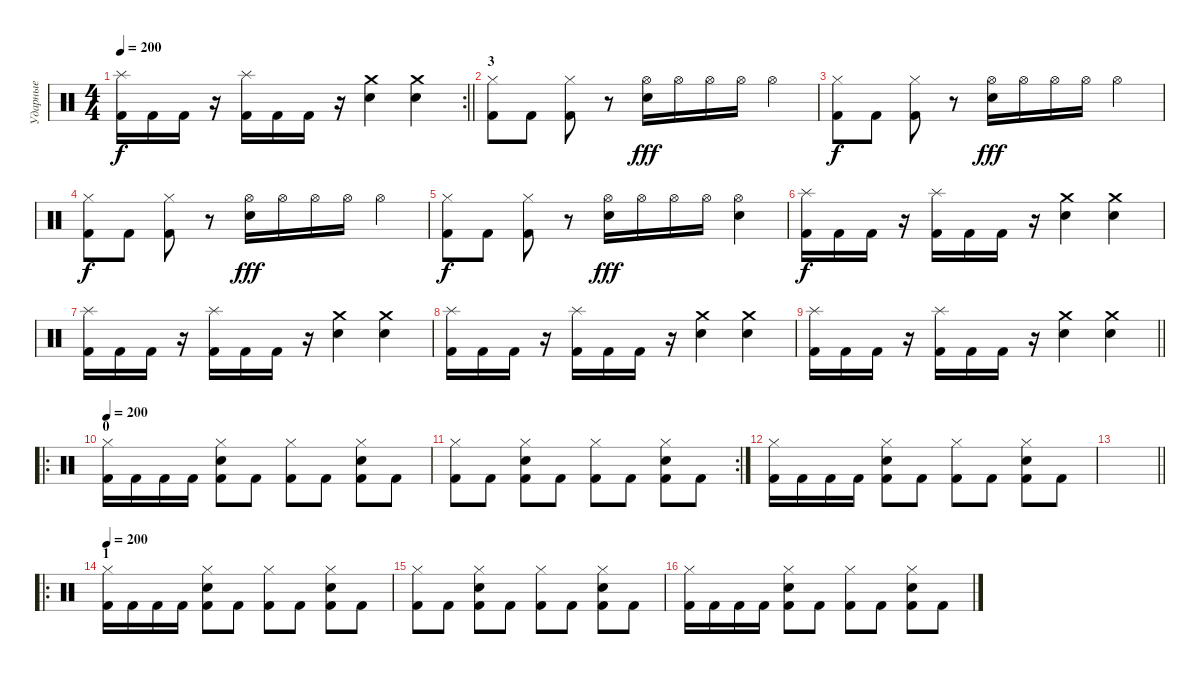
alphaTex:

\track ("Ударные" "Ударные") {instrument percussion}
\staff {score}
\articulation defaults
\rc 2
\ts (4 4)
\tempo 200
\clef neutral
\barLineRight lightlight
\ks c
("Splash (hit)" "Kick (hit) 2").16{dy f} "Kick (hit) 2".16 "Kick (hit) 2".16 r.16 ("Splash (hit)" "Kick (hit) 2").16 "Kick (hit) 2".16 "Kick (hit) 2".16 r.16 ("Crash medium (hit)" "Electric Snare (hit)").4 ("Crash medium (hit)" "Electric Snare (hit)").4 |
\section ("" "3")
("Hi-Hat (closed)" "Kick (hit) 2").8 "Kick (hit) 2".8 ("Hi-Hat (closed)" "Kick (hit) 2").8 r.8 ("Hi-Hat (open)" "Electric Snare (hit)").16{dy fff} "Hi-Hat (open)".16 "Hi-Hat (open)".16 "Hi-Hat (open)".16 "Hi-Hat (open)".4 |
("Hi-Hat (closed)" "Kick (hit) 2").8{dy f} "Kick (hit) 2".8 ("Hi-Hat (closed)" "Kick (hit) 2").8 r.8 ("Hi-Hat (open)" "Electric Snare (hit)").16{dy fff} "Hi-Hat (open)".16 "Hi-Hat (open)".16 "Hi-Hat (open)".16 "Hi-Hat (open)".4 |
("Hi-Hat (closed)" "Kick (hit) 2").8{dy f} "Kick (hit) 2".8 ("Hi-Hat (closed)" "Kick (hit) 2").8 r.8 ("Hi-Hat (open)" "Electric Snare (hit)").16{dy fff} "Hi-Hat (open)".16 "Hi-Hat (open)".16 "Hi-Hat (open)".16 "Hi-Hat (open)".4 |
("Hi-Hat (closed)" "Kick (hit) 2").8{dy f} "Kick (hit) 2".8 ("Hi-Hat (closed)" "Kick (hit) 2").8 r.8 ("Hi-Hat (open)" "Electric Snare (hit)").16{dy fff} "Hi-Hat (open)".16 "Hi-Hat (open)".16 "Hi-Hat (open)".16 ("Hi-Hat (open)" "Electric Snare (hit)").4 |
("Splash (hit)" "Kick (hit) 2").16{dy f} "Kick (hit) 2".16 "Kick (hit) 2".16 r.16 ("Splash (hit)" "Kick (hit) 2").16 "Kick (hit) 2".16 "Kick (hit) 2".16 r.16 ("Crash medium (hit)" "Electric Snare (hit)").4 ("Crash medium (hit)" "Electric Snare (hit)").4 |
("Splash (hit)" "Kick (hit) 2").16 "Kick (hit) 2".16 "Kick (hit) 2".16 r.16 ("Splash (hit)" "Kick (hit) 2").16 "Kick (hit) 2".16 "Kick (hit) 2".16 r.16 ("Crash medium (hit)" "Electric Snare (hit)").4 ("Crash medium (hit)" "Electric Snare (hit)").4 |
("Splash (hit)" "Kick (hit) 2").16 "Kick (hit) 2".16 "Kick (hit) 2".16 r.16 ("Splash (hit)" "Kick (hit) 2").16 "Kick (hit) 2".16 "Kick (hit) 2".16 r.16 ("Crash medium (hit)" "Electric Snare (hit)").4 ("Crash medium (hit)" "Electric Snare (hit)").4 |
\barLineRight lightlight
("Splash (hit)" "Kick (hit) 2").16 "Kick (hit) 2".16 "Kick (hit) 2".16 r.16 ("Splash (hit)" "Kick (hit) 2").16 "Kick (hit) 2".16 "Kick (hit) 2".16 r.16 ("Crash medium (hit)" "Electric Snare (hit)").4 ("Crash medium (hit)" "Electric Snare (hit)").4 |
\ro
\section ("" "0")
\tempo 200
("Hi-Hat (closed)" "Kick (hit) 2").16 "Kick (hit) 2".16 "Kick (hit) 2".16 "Kick (hit) 2".16 ("Hi-Hat (closed)" "Electric Snare (hit)" "Kick (hit) 2").8 "Kick (hit) 2".8 ("Hi-Hat (closed)" "Kick (hit) 2").8 "Kick (hit) 2".8 ("Hi-Hat (closed)" "Electric Snare (hit)" "Kick (hit) 2").8 "Kick (hit) 2".8 |
\rc 2
("Hi-Hat (closed)" "Kick (hit) 2").8 "Kick (hit) 2".8 ("Hi-Hat (closed)" "Electric Snare (hit)" "Kick (hit) 2").8 "Kick (hit) 2".8 ("Hi-Hat (closed)" "Kick (hit) 2").8 "Kick (hit) 2".8 ("Hi-Hat (closed)" "Electric Snare (hit)" "Kick (hit) 2").8 "Kick (hit) 2".8 |
("Hi-Hat (closed)" "Kick (hit) 2").16 "Kick (hit) 2".16 "Kick (hit) 2".16 "Kick (hit) 2".16 ("Hi-Hat (closed)" "Electric Snare (hit)" "Kick (hit) 2").8 "Kick (hit) 2".8 ("Hi-Hat (closed)" "Kick (hit) 2").8 "Kick (hit) 2".8 ("Hi-Hat (closed)" "Electric Snare (hit)" "Kick (hit) 2").8 "Kick (hit) 2".8 |
\barLineRight lightlight
|
\ro
\section ("" "1")
\tempo 200
("Hi-Hat (closed)" "Kick (hit) 2").16 "Kick (hit) 2".16 "Kick (hit) 2".16 "Kick (hit) 2".16 ("Hi-Hat (closed)" "Electric Snare (hit)" "Kick (hit) 2").8 "Kick (hit) 2".8 ("Hi-Hat (closed)" "Kick (hit) 2").8 "Kick (hit) 2".8 ("Hi-Hat (closed)" "Electric Snare (hit)" "Kick (hit) 2").8 "Kick (hit) 2".8 |
("Hi-Hat (closed)" "Kick (hit) 2").8 "Kick (hit) 2".8 ("Hi-Hat (closed)" "Electric Snare (hit)" "Kick (hit) 2").8 "Kick (hit) 2".8 ("Hi-Hat (closed)" "Kick (hit) 2").8 "Kick (hit) 2".8 ("Hi-Hat (closed)" "Electric Snare (hit)" "Kick (hit) 2").8 "Kick (hit) 2".8 |
("Hi-Hat (closed)" "Kick (hit) 2").16 "Kick (hit) 2".16 "Kick (hit) 2".16 "Kick (hit) 2".16 ("Hi-Hat (closed)" "Electric Snare (hit)" "Kick (hit) 2").8 "Kick (hit) 2".8 ("Hi-Hat (closed)" "Kick (hit) 2").8 "Kick (hit) 2".8 ("Hi-Hat (closed)" "Electric Snare (hit)" "Kick (hit) 2").8 "Kick (hit) 2".8
